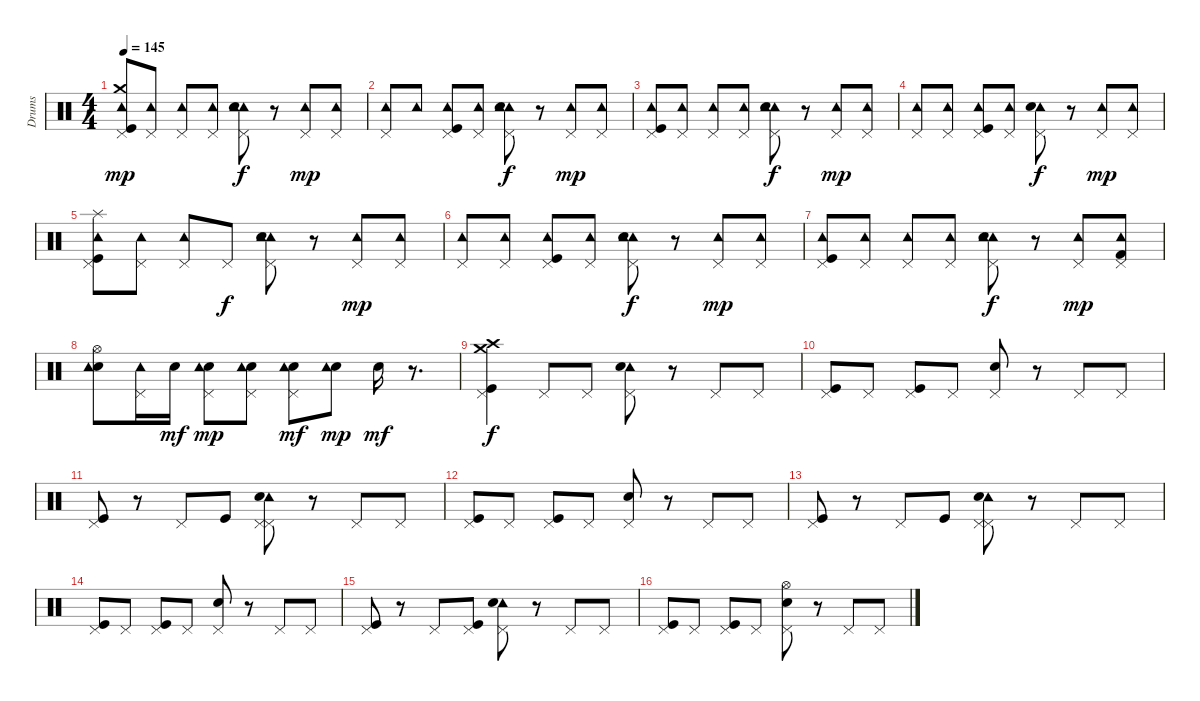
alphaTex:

\track ("Drums" "Drums") {instrument percussion}
\staff {score}
\articulation defaults
\ts (4 4)
\tempo 145
\clef neutral
\ks c
("Tambourine (hit)" "Pedal Hi-Hat (hit)" "Crash medium (hit)" "Kick (hit)").8{dy mp} ("Pedal Hi-Hat (hit)" "Tambourine (hit)").8 ("Tambourine (hit)" "Pedal Hi-Hat (hit)").8 ("Pedal Hi-Hat (hit)" "Tambourine (hit)").8 ("Tambourine (hit)" "Pedal Hi-Hat (hit)" "Tambourine (hit)" "Electric Snare (hit)").8{dy f} r.8 ("Tambourine (hit)" "Pedal Hi-Hat (hit)").8{dy mp} ("Pedal Hi-Hat (hit)" "Tambourine (hit)").8 |
("Pedal Hi-Hat (hit)" "Tambourine (hit)").8 "Tambourine (hit)".8 ("Tambourine (hit)" "Pedal Hi-Hat (hit)" "Kick (hit)").8 ("Pedal Hi-Hat (hit)" "Tambourine (hit)").8 ("Tambourine (hit)" "Tambourine (hit)" "Pedal Hi-Hat (hit)" "Electric Snare (hit)").8{dy f} r.8 ("Tambourine (hit)" "Pedal Hi-Hat (hit)").8{dy mp} ("Pedal Hi-Hat (hit)" "Tambourine (hit)").8 |
("Tambourine (hit)" "Pedal Hi-Hat (hit)" "Kick (hit)").8 ("Tambourine (hit)" "Pedal Hi-Hat (hit)").8 ("Tambourine (hit)" "Pedal Hi-Hat (hit)").8 ("Tambourine (hit)" "Pedal Hi-Hat (hit)").8 ("Tambourine (hit)" "Pedal Hi-Hat (hit)" "Tambourine (hit)" "Electric Snare (hit)").8{dy f} r.8 ("Tambourine (hit)" "Pedal Hi-Hat (hit)").8{dy mp} ("Tambourine (hit)" "Pedal Hi-Hat (hit)").8 |
("Tambourine (hit)" "Pedal Hi-Hat (hit)").8 ("Tambourine (hit)" "Pedal Hi-Hat (hit)").8 ("Tambourine (hit)" "Pedal Hi-Hat (hit)" "Kick (hit)").8 ("Tambourine (hit)" "Pedal Hi-Hat (hit)").8 ("Tambourine (hit)" "Pedal Hi-Hat (hit)" "Electric Snare (hit)").8{dy f} r.8 ("Tambourine (hit)" "Pedal Hi-Hat (hit)").8{dy mp} ("Tambourine (hit)" "Pedal Hi-Hat (hit)").8 |
("Splash (hit)" "Tambourine (hit)" "Pedal Hi-Hat (hit)" "Kick (hit)").8 ("Tambourine (hit)" "Pedal Hi-Hat (hit)").8 ("Tambourine (hit)" "Pedal Hi-Hat (hit)").8 "Pedal Hi-Hat (hit)".8{dy f} ("Tambourine (hit)" "Pedal Hi-Hat (hit)" "Tambourine (hit)" "Electric Snare (hit)").8 r.8 ("Tambourine (hit)" "Pedal Hi-Hat (hit)").8{dy mp} ("Tambourine (hit)" "Pedal Hi-Hat (hit)").8 |
("Tambourine (hit)" "Pedal Hi-Hat (hit)").8 ("Tambourine (hit)" "Pedal Hi-Hat (hit)").8 ("Tambourine (hit)" "Pedal Hi-Hat (hit)" "Kick (hit)").8 ("Tambourine (hit)" "Pedal Hi-Hat (hit)").8 ("Tambourine (hit)" "Tambourine (hit)" "Pedal Hi-Hat (hit)" "Electric Snare (hit)").8{dy f} r.8 ("Tambourine (hit)" "Pedal Hi-Hat (hit)").8{dy mp} ("Tambourine (hit)" "Pedal Hi-Hat (hit)").8 |
("Tambourine (hit)" "Pedal Hi-Hat (hit)" "Kick (hit)").8 ("Tambourine (hit)" "Pedal Hi-Hat (hit)").8 ("Tambourine (hit)" "Pedal Hi-Hat (hit)").8 ("Tambourine (hit)" "Pedal Hi-Hat (hit)").8 ("Tambourine (hit)" "Pedal Hi-Hat (hit)" "Tambourine (hit)" "Electric Snare (hit)").8{dy f} r.8 ("Tambourine (hit)" "Pedal Hi-Hat (hit)").8{dy mp} ("Kick (hit) 2" "Tambourine (hit)" "Pedal Hi-Hat (hit)").8 |
("Hi-Hat (open)" "Electric Snare (hit)" "Tambourine (hit)").8 ("Tambourine (hit)" "Pedal Hi-Hat (hit)").16 "Snare (hit) 2".16{dy mf} ("Electric Snare (hit)" "Tambourine (hit)" "Pedal Hi-Hat (hit)").8{dy mp} ("Electric Snare (hit)" "Tambourine (hit)" "Pedal Hi-Hat (hit)").8 ("Electric Snare (hit)" "Tambourine (hit)" "Pedal Hi-Hat (hit)").8{dy mf} ("Electric Snare (hit)" "Tambourine (hit)").8{dy mp} "Electric Snare (hit)".16{dy mf} r.8{d} |
("Crash high (hit)" "Pedal Hi-Hat (hit)" "Crash medium (hit)" "Kick (hit)").4{dy f} "Pedal Hi-Hat (hit)".8 "Pedal Hi-Hat (hit)".8 ("Pedal Hi-Hat (hit)" "Tambourine (hit)" "Electric Snare (hit)").8 r.8 "Pedal Hi-Hat (hit)".8 "Pedal Hi-Hat (hit)".8 |
("Kick (hit)" "Pedal Hi-Hat (hit)").8 "Pedal Hi-Hat (hit)".8 ("Pedal Hi-Hat (hit)" "Kick (hit)").8 "Pedal Hi-Hat (hit)".8 ("Pedal Hi-Hat (hit)" "Electric Snare (hit)").8 r.8 "Pedal Hi-Hat (hit)".8 "Pedal Hi-Hat (hit)".8 |
("Pedal Hi-Hat (hit)" "Kick (hit)").8 r.8 "Pedal Hi-Hat (hit)".8 "Kick (hit)".8 ("Pedal Hi-Hat (hit)" "Pedal Hi-Hat (hit)" "Tambourine (hit)" "Electric Snare (hit)").8 r.8 "Pedal Hi-Hat (hit)".8 "Pedal Hi-Hat (hit)".8 |
("Kick (hit)" "Pedal Hi-Hat (hit)").8 "Pedal Hi-Hat (hit)".8 ("Pedal Hi-Hat (hit)" "Kick (hit)").8 "Pedal Hi-Hat (hit)".8 ("Pedal Hi-Hat (hit)" "Electric Snare (hit)").8 r.8 "Pedal Hi-Hat (hit)".8 "Pedal Hi-Hat (hit)".8 |
("Pedal Hi-Hat (hit)" "Kick (hit)").8 r.8 "Pedal Hi-Hat (hit)".8 "Kick (hit)".8 ("Pedal Hi-Hat (hit)" "Pedal Hi-Hat (hit)" "Tambourine (hit)" "Electric Snare (hit)").8 r.8 "Pedal Hi-Hat (hit)".8 "Pedal Hi-Hat (hit)".8 |
("Kick (hit)" "Pedal Hi-Hat (hit)").8 "Pedal Hi-Hat (hit)".8 ("Pedal Hi-Hat (hit)" "Kick (hit)").8 "Pedal Hi-Hat (hit)".8 ("Pedal Hi-Hat (hit)" "Electric Snare (hit)").8 r.8 "Pedal Hi-Hat (hit)".8 "Pedal Hi-Hat (hit)".8 |
("Pedal Hi-Hat (hit)" "Kick (hit)").8 r.8 "Pedal Hi-Hat (hit)".8 ("Kick (hit)" "Pedal Hi-Hat (hit)").8 ("Pedal Hi-Hat (hit)" "Tambourine (hit)" "Electric Snare (hit)").8 r.8 "Pedal Hi-Hat (hit)".8 "Pedal Hi-Hat (hit)".8 |
("Kick (hit)" "Pedal Hi-Hat (hit)").8 "Pedal Hi-Hat (hit)".8 ("Pedal Hi-Hat (hit)" "Kick (hit)").8 "Pedal Hi-Hat (hit)".8 ("Pedal Hi-Hat (hit)" "Hi-Hat (open)" "Electric Snare (hit)").8 r.8 "Pedal Hi-Hat (hit)".8 "Pedal Hi-Hat (hit)".8
